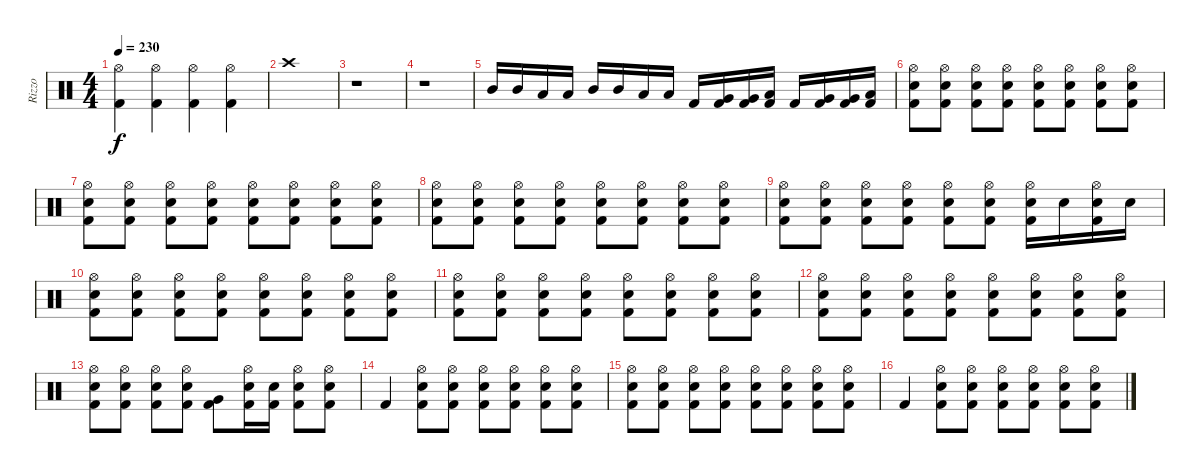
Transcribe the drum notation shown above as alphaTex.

\track ("Rizzo" "Rizzo") {instrument percussion}
\staff {score}
\articulation defaults
\ts (4 4)
\tempo 230
\clef neutral
\ks c
("Hi-Hat (open)" "Kick (hit) 2").4{dy f} ("Hi-Hat (open)" "Kick (hit) 2").4 ("Hi-Hat (open)" "Kick (hit) 2").4 ("Hi-Hat (open)" "Kick (hit) 2").4 |
"Crash high (hit)".1 |
r.1 |
r.1 |
"Mid Tom (hit)".16 "Mid Tom (hit)".16 "Low Tom (hit)".16 "Low Tom (hit)".16 "Mid Tom (hit)".16 "Mid Tom (hit)".16 "Low Tom (hit)".16 "Low Tom (hit)".16 "Kick (hit) 2".16 ("Very Low Tom (hit)" "Kick (hit) 2").16 ("Very Low Tom (hit)" "Kick (hit) 2").16 ("Low Floor Tom (hit)" "Kick (hit) 2").16 "Kick (hit) 2".16 ("Very Low Tom (hit)" "Kick (hit) 2").16 ("Very Low Tom (hit)" "Kick (hit) 2").16 ("Low Floor Tom (hit)" "Kick (hit) 2").16 |
("Hi-Hat (open)" "Snare (hit) 2" "Kick (hit) 2").8 ("Hi-Hat (open)" "Snare (hit) 2" "Kick (hit) 2").8 ("Hi-Hat (open)" "Snare (hit) 2" "Kick (hit) 2").8 ("Hi-Hat (open)" "Snare (hit) 2" "Kick (hit) 2").8 ("Hi-Hat (open)" "Snare (hit) 2" "Kick (hit) 2").8 ("Hi-Hat (open)" "Snare (hit) 2" "Kick (hit) 2").8 ("Hi-Hat (open)" "Snare (hit) 2" "Kick (hit) 2").8 ("Hi-Hat (open)" "Snare (hit) 2" "Kick (hit) 2").8 |
("Hi-Hat (open)" "Snare (hit) 2" "Kick (hit) 2").8 ("Hi-Hat (open)" "Snare (hit) 2" "Kick (hit) 2").8 ("Hi-Hat (open)" "Snare (hit) 2" "Kick (hit) 2").8 ("Hi-Hat (open)" "Snare (hit) 2" "Kick (hit) 2").8 ("Hi-Hat (open)" "Snare (hit) 2" "Kick (hit) 2").8 ("Hi-Hat (open)" "Snare (hit) 2" "Kick (hit) 2").8 ("Hi-Hat (open)" "Snare (hit) 2" "Kick (hit) 2").8 ("Hi-Hat (open)" "Snare (hit) 2" "Kick (hit) 2").8 |
("Hi-Hat (open)" "Snare (hit) 2" "Kick (hit) 2").8 ("Hi-Hat (open)" "Snare (hit) 2" "Kick (hit) 2").8 ("Hi-Hat (open)" "Snare (hit) 2" "Kick (hit) 2").8 ("Hi-Hat (open)" "Snare (hit) 2" "Kick (hit) 2").8 ("Hi-Hat (open)" "Snare (hit) 2" "Kick (hit) 2").8 ("Hi-Hat (open)" "Snare (hit) 2" "Kick (hit) 2").8 ("Hi-Hat (open)" "Snare (hit) 2" "Kick (hit) 2").8 ("Hi-Hat (open)" "Snare (hit) 2" "Kick (hit) 2").8 |
("Hi-Hat (open)" "Snare (hit) 2" "Kick (hit) 2").8 ("Hi-Hat (open)" "Snare (hit) 2" "Kick (hit) 2").8 ("Hi-Hat (open)" "Snare (hit) 2" "Kick (hit) 2").8 ("Hi-Hat (open)" "Snare (hit) 2" "Kick (hit) 2").8 ("Hi-Hat (open)" "Snare (hit) 2" "Kick (hit) 2").8 ("Hi-Hat (open)" "Snare (hit) 2" "Kick (hit) 2").8 ("Hi-Hat (open)" "Snare (hit) 2" "Kick (hit) 2").16 "Snare (hit) 2".16 ("Hi-Hat (open)" "Snare (hit) 2" "Kick (hit) 2").16 "Snare (hit) 2".16 |
("Hi-Hat (open)" "Snare (hit) 2" "Kick (hit) 2").8 ("Hi-Hat (open)" "Snare (hit) 2" "Kick (hit) 2").8 ("Hi-Hat (open)" "Snare (hit) 2" "Kick (hit) 2").8 ("Hi-Hat (open)" "Snare (hit) 2" "Kick (hit) 2").8 ("Hi-Hat (open)" "Snare (hit) 2" "Kick (hit) 2").8 ("Hi-Hat (open)" "Snare (hit) 2" "Kick (hit) 2").8 ("Hi-Hat (open)" "Snare (hit) 2" "Kick (hit) 2").8 ("Hi-Hat (open)" "Snare (hit) 2" "Kick (hit) 2").8 |
("Hi-Hat (open)" "Snare (hit) 2" "Kick (hit) 2").8 ("Hi-Hat (open)" "Snare (hit) 2" "Kick (hit) 2").8 ("Hi-Hat (open)" "Snare (hit) 2" "Kick (hit) 2").8 ("Hi-Hat (open)" "Snare (hit) 2" "Kick (hit) 2").8 ("Hi-Hat (open)" "Snare (hit) 2" "Kick (hit) 2").8 ("Hi-Hat (open)" "Snare (hit) 2" "Kick (hit) 2").8 ("Hi-Hat (open)" "Snare (hit) 2" "Kick (hit) 2").8 ("Hi-Hat (open)" "Snare (hit) 2" "Kick (hit) 2").8 |
("Hi-Hat (open)" "Snare (hit) 2" "Kick (hit) 2").8 ("Hi-Hat (open)" "Snare (hit) 2" "Kick (hit) 2").8 ("Hi-Hat (open)" "Snare (hit) 2" "Kick (hit) 2").8 ("Hi-Hat (open)" "Snare (hit) 2" "Kick (hit) 2").8 ("Hi-Hat (open)" "Snare (hit) 2" "Kick (hit) 2").8 ("Hi-Hat (open)" "Snare (hit) 2" "Kick (hit) 2").8 ("Hi-Hat (open)" "Snare (hit) 2" "Kick (hit) 2").8 ("Hi-Hat (open)" "Snare (hit) 2" "Kick (hit) 2").8 |
("Hi-Hat (open)" "Snare (hit) 2" "Kick (hit) 2").8 ("Hi-Hat (open)" "Snare (hit) 2" "Kick (hit) 2").8 ("Hi-Hat (open)" "Snare (hit) 2" "Kick (hit) 2").8 ("Hi-Hat (open)" "Snare (hit) 2" "Kick (hit) 2").8 ("Very Low Tom (hit)" "Kick (hit) 2").8 ("Hi-Hat (open)" "Snare (hit) 2" "Kick (hit) 2").16 ("Snare (hit) 2" "Kick (hit) 2").16 ("Hi-Hat (open)" "Snare (hit) 2" "Kick (hit) 2").8 ("Hi-Hat (open)" "Snare (hit) 2" "Kick (hit) 2").8 |
"Kick (hit) 2".4 ("Hi-Hat (open)" "Snare (hit) 2" "Kick (hit) 2").8 ("Hi-Hat (open)" "Snare (hit) 2" "Kick (hit) 2").8 ("Hi-Hat (open)" "Snare (hit) 2" "Kick (hit) 2").8 ("Hi-Hat (open)" "Snare (hit) 2" "Kick (hit) 2").8 ("Hi-Hat (open)" "Snare (hit) 2" "Kick (hit) 2").8 ("Hi-Hat (open)" "Snare (hit) 2" "Kick (hit) 2").8 |
("Hi-Hat (open)" "Snare (hit) 2" "Kick (hit) 2").8 ("Hi-Hat (open)" "Snare (hit) 2" "Kick (hit) 2").8 ("Hi-Hat (open)" "Snare (hit) 2" "Kick (hit) 2").8 ("Hi-Hat (open)" "Snare (hit) 2" "Kick (hit) 2").8 ("Hi-Hat (open)" "Snare (hit) 2" "Kick (hit) 2").8 ("Hi-Hat (open)" "Snare (hit) 2" "Kick (hit) 2").8 ("Hi-Hat (open)" "Snare (hit) 2" "Kick (hit) 2").8 ("Hi-Hat (open)" "Snare (hit) 2" "Kick (hit) 2").8 |
"Kick (hit) 2".4 ("Hi-Hat (open)" "Snare (hit) 2" "Kick (hit) 2").8 ("Hi-Hat (open)" "Snare (hit) 2" "Kick (hit) 2").8 ("Hi-Hat (open)" "Snare (hit) 2" "Kick (hit) 2").8 ("Hi-Hat (open)" "Snare (hit) 2" "Kick (hit) 2").8 ("Hi-Hat (open)" "Snare (hit) 2" "Kick (hit) 2").8 ("Hi-Hat (open)" "Snare (hit) 2" "Kick (hit) 2").8
